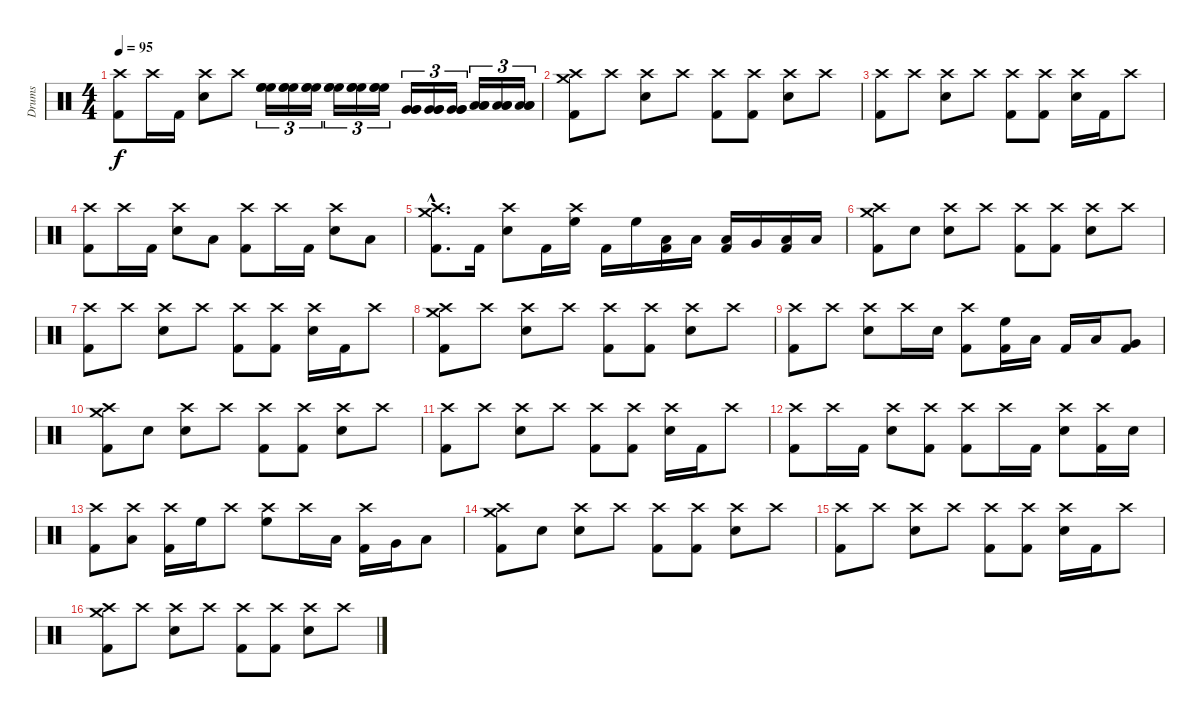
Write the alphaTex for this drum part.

\track ("Drums" "Drums") {instrument percussion}
\staff {score}
\articulation defaults
\ts (4 4)
\tempo 95
\clef neutral
\ks c
("Crash high (hit)" "Kick (hit) 2").8{dy f} "Crash high (hit)".16 "Kick (hit) 2".16 ("Snare (hit) 2" "Crash high (hit)").8 "Crash high (hit)".8 ("High Floor Tom (hit)" "High Floor Tom (hit)" "High Floor Tom (hit)").16{tu (3 2)} ("High Floor Tom (hit)" "High Floor Tom (hit)" "High Floor Tom (hit)").16{tu (3 2)} ("High Floor Tom (hit)" "High Floor Tom (hit)" "High Floor Tom (hit)").16{tu (3 2)} ("High Floor Tom (hit)" "High Floor Tom (hit)" "High Floor Tom (hit)").16{tu (3 2)} ("High Floor Tom (hit)" "High Floor Tom (hit)" "High Floor Tom (hit)").16{tu (3 2)} ("High Floor Tom (hit)" "High Floor Tom (hit)" "High Floor Tom (hit)").16{tu (3 2)} ("Very Low Tom (hit)" "Very Low Tom (hit)" "Very Low Tom (hit)").16{tu (3 2)} ("Very Low Tom (hit)" "Very Low Tom (hit)" "Very Low Tom (hit)").16{tu (3 2)} ("Very Low Tom (hit)" "Very Low Tom (hit)" "Very Low Tom (hit)").16{tu (3 2)} ("Low Floor Tom (hit)" "Low Floor Tom (hit)" "Low Floor Tom (hit)").16{tu (3 2)} ("Low Floor Tom (hit)" "Low Floor Tom (hit)" "Low Floor Tom (hit)").16{tu (3 2)} ("Low Floor Tom (hit)" "Low Floor Tom (hit)" "Low Floor Tom (hit)").16{tu (3 2)} |
("Crash medium (hit)" "Crash high (hit)" "Kick (hit) 2").8 "Crash high (hit)".8 ("Crash high (hit)" "Snare (hit) 2").8 "Crash high (hit)".8 ("Crash high (hit)" "Kick (hit) 2").8 ("Crash high (hit)" "Kick (hit) 2").8 ("Crash high (hit)" "Snare (hit) 2").8 "Crash high (hit)".8 |
("Kick (hit) 2" "Crash high (hit)").8 "Crash high (hit)".8 ("Snare (hit) 2" "Crash high (hit)").8 "Crash high (hit)".8 ("Kick (hit) 2" "Crash high (hit)").8 ("Kick (hit) 2" "Crash high (hit)").8 ("Snare (hit) 2" "Crash high (hit)").16 "Kick (hit) 2".16 "Crash high (hit)".8 |
("Crash high (hit)" "Kick (hit) 2").8 "Crash high (hit)".16 "Kick (hit) 2".16 ("Crash high (hit)" "Snare (hit) 2").8 "Low Floor Tom (hit)".8 ("Crash high (hit)" "Kick (hit) 2").8 "Crash high (hit)".16 "Kick (hit) 2".16 ("Snare (hit) 2" "Crash high (hit)").8 "Low Floor Tom (hit)".8 |
("Crash medium (hit)"{hac} "Crash high (hit)"{hac} "Kick (hit) 2"{hac}).8{d} "Kick (hit) 2".16 ("Snare (hit) 2" "Crash high (hit)").8 "Kick (hit) 2".16 ("High Floor Tom (hit)" "Crash high (hit)").16 "Kick (hit) 2".16 "High Floor Tom (hit)".16 ("Low Tom (hit)" "Kick (hit) 2").16 "Low Tom (hit)".16 ("Low Tom (hit)" "Kick (hit) 2").16 "Very Low Tom (hit)".16 ("Low Floor Tom (hit)" "Kick (hit) 2").16 "Low Floor Tom (hit)".16 |
("Crash medium (hit)" "Crash high (hit)" "Kick (hit) 2").8 "Snare (hit)".8 ("Crash high (hit)" "Snare (hit) 2").8 "Crash high (hit)".8 ("Crash high (hit)" "Kick (hit) 2").8 ("Crash high (hit)" "Kick (hit) 2").8 ("Crash high (hit)" "Snare (hit) 2").8 "Crash high (hit)".8 |
("Kick (hit) 2" "Crash high (hit)").8 "Crash high (hit)".8 ("Snare (hit) 2" "Crash high (hit)").8 "Crash high (hit)".8 ("Kick (hit) 2" "Crash high (hit)").8 ("Kick (hit) 2" "Crash high (hit)").8 ("Snare (hit) 2" "Crash high (hit)").16 "Kick (hit) 2".16 "Crash high (hit)".8 |
("Crash medium (hit)" "Crash high (hit)" "Kick (hit) 2").8 "Crash high (hit)".8 ("Crash high (hit)" "Snare (hit) 2").8 "Crash high (hit)".8 ("Crash high (hit)" "Kick (hit) 2").8 ("Crash high (hit)" "Kick (hit) 2").8 ("Crash high (hit)" "Snare (hit) 2").8 "Crash high (hit)".8 |
("Crash high (hit)" "Kick (hit) 2").8 "Crash high (hit)".8 ("Crash high (hit)" "Snare (hit) 2").8 "Crash high (hit)".16 "Snare (hit) 2".16 ("Crash high (hit)" "Kick (hit) 2").8 ("High Floor Tom (hit)" "Kick (hit) 2").16 "Low Tom (hit)".16 "Kick (hit) 2".16 "Low Tom (hit)".16 ("Very Low Tom (hit)" "Kick (hit) 2").8 |
("Crash medium (hit)" "Crash high (hit)" "Kick (hit) 2").8 "Snare (hit)".8 ("Crash high (hit)" "Snare (hit) 2").8 "Crash high (hit)".8 ("Crash high (hit)" "Kick (hit) 2").8 ("Crash high (hit)" "Kick (hit) 2").8 ("Crash high (hit)" "Snare (hit) 2").8 "Crash high (hit)".8 |
("Kick (hit) 2" "Crash high (hit)").8 "Crash high (hit)".8 ("Snare (hit) 2" "Crash high (hit)").8 "Crash high (hit)".8 ("Kick (hit) 2" "Crash high (hit)").8 ("Kick (hit) 2" "Crash high (hit)").8 ("Snare (hit) 2" "Crash high (hit)").16 "Kick (hit) 2".16 "Crash high (hit)".8 |
("Crash high (hit)" "Kick (hit) 2").8 "Crash high (hit)".16 "Kick (hit) 2".16 ("Crash high (hit)" "Snare (hit) 2").8 ("Kick (hit) 2" "Crash high (hit)").8 ("Crash high (hit)" "Kick (hit) 2").8 "Crash high (hit)".16 "Kick (hit) 2".16 ("Snare (hit) 2" "Crash high (hit)").8 ("Crash high (hit)" "Kick (hit) 2").16 "Snare (hit) 2".16 |
("Kick (hit) 2" "Crash high (hit)").8 ("Crash high (hit)" "Low Tom (hit)").8 ("Crash high (hit)" "Kick (hit) 2").16 "High Floor Tom (hit)".16 "Crash high (hit)".8 ("High Floor Tom (hit)" "Crash high (hit)").8 "Crash high (hit)".16 "Low Tom (hit)".16 ("Crash high (hit)" "Kick (hit) 2").16 "Very Low Tom (hit)".16 "Low Floor Tom (hit)".8 |
("Crash medium (hit)" "Crash high (hit)" "Kick (hit) 2").8 "Snare (hit)".8 ("Crash high (hit)" "Snare (hit) 2").8 "Crash high (hit)".8 ("Crash high (hit)" "Kick (hit) 2").8 ("Crash high (hit)" "Kick (hit) 2").8 ("Crash high (hit)" "Snare (hit) 2").8 "Crash high (hit)".8 |
("Kick (hit) 2" "Crash high (hit)").8 "Crash high (hit)".8 ("Snare (hit) 2" "Crash high (hit)").8 "Crash high (hit)".8 ("Kick (hit) 2" "Crash high (hit)").8 ("Kick (hit) 2" "Crash high (hit)").8 ("Snare (hit) 2" "Crash high (hit)").16 "Kick (hit) 2".16 "Crash high (hit)".8 |
("Crash medium (hit)" "Crash high (hit)" "Kick (hit) 2").8 "Crash high (hit)".8 ("Crash high (hit)" "Snare (hit) 2").8 "Crash high (hit)".8 ("Crash high (hit)" "Kick (hit) 2").8 ("Crash high (hit)" "Kick (hit) 2").8 ("Crash high (hit)" "Snare (hit) 2").8 "Crash high (hit)".8
